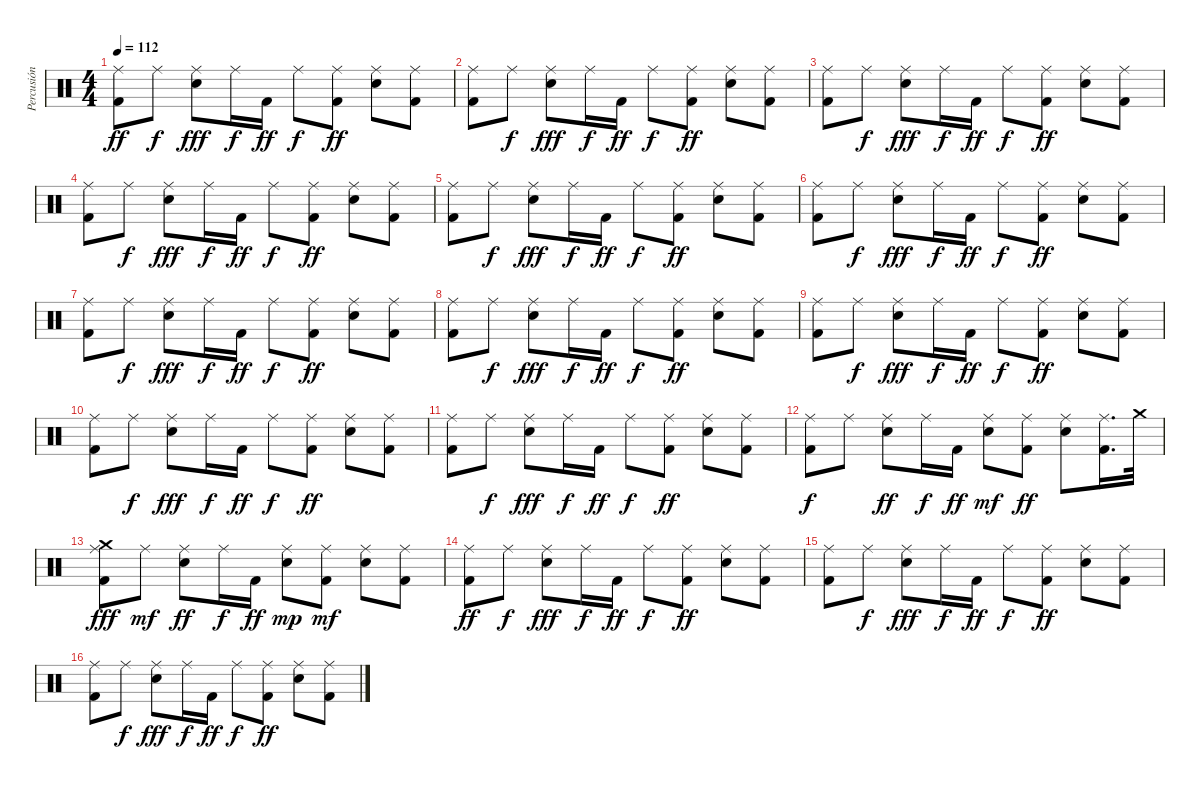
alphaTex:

\track ("Percusión" "Percusión") {instrument percussion}
\staff {score}
\articulation defaults
\ts (4 4)
\tempo 112
\clef neutral
\ks c
("Kick (hit) 2" "Ride (middle)").8{dy ff} "Ride (middle)".8{dy f} ("Snare (hit) 2" "Ride (middle)").8{dy fff} "Ride (middle)".16{dy f} "Kick (hit) 2".16{dy ff} "Ride (middle)".8{dy f} ("Kick (hit) 2" "Ride (middle)").8{dy ff} ("Snare (hit) 2" "Ride (middle)").8 ("Kick (hit) 2" "Ride (middle)").8 |
("Kick (hit) 2" "Ride (middle)").8 "Ride (middle)".8{dy f} ("Snare (hit) 2" "Ride (middle)").8{dy fff} "Ride (middle)".16{dy f} "Kick (hit) 2".16{dy ff} "Ride (middle)".8{dy f} ("Kick (hit) 2" "Ride (middle)").8{dy ff} ("Snare (hit) 2" "Ride (middle)").8 ("Kick (hit) 2" "Ride (middle)").8 |
("Kick (hit) 2" "Ride (middle)").8 "Ride (middle)".8{dy f} ("Snare (hit) 2" "Ride (middle)").8{dy fff} "Ride (middle)".16{dy f} "Kick (hit) 2".16{dy ff} "Ride (middle)".8{dy f} ("Kick (hit) 2" "Ride (middle)").8{dy ff} ("Snare (hit) 2" "Ride (middle)").8 ("Kick (hit) 2" "Ride (middle)").8 |
("Kick (hit) 2" "Ride (middle)").8 "Ride (middle)".8{dy f} ("Snare (hit) 2" "Ride (middle)").8{dy fff} "Ride (middle)".16{dy f} "Kick (hit) 2".16{dy ff} "Ride (middle)".8{dy f} ("Kick (hit) 2" "Ride (middle)").8{dy ff} ("Snare (hit) 2" "Ride (middle)").8 ("Kick (hit) 2" "Ride (middle)").8 |
("Kick (hit) 2" "Ride (middle)").8 "Ride (middle)".8{dy f} ("Snare (hit) 2" "Ride (middle)").8{dy fff} "Ride (middle)".16{dy f} "Kick (hit) 2".16{dy ff} "Ride (middle)".8{dy f} ("Kick (hit) 2" "Ride (middle)").8{dy ff} ("Snare (hit) 2" "Ride (middle)").8 ("Kick (hit) 2" "Ride (middle)").8 |
("Kick (hit) 2" "Ride (middle)").8 "Ride (middle)".8{dy f} ("Snare (hit) 2" "Ride (middle)").8{dy fff} "Ride (middle)".16{dy f} "Kick (hit) 2".16{dy ff} "Ride (middle)".8{dy f} ("Kick (hit) 2" "Ride (middle)").8{dy ff} ("Snare (hit) 2" "Ride (middle)").8 ("Kick (hit) 2" "Ride (middle)").8 |
("Kick (hit) 2" "Ride (middle)").8 "Ride (middle)".8{dy f} ("Snare (hit) 2" "Ride (middle)").8{dy fff} "Ride (middle)".16{dy f} "Kick (hit) 2".16{dy ff} "Ride (middle)".8{dy f} ("Kick (hit) 2" "Ride (middle)").8{dy ff} ("Snare (hit) 2" "Ride (middle)").8 ("Kick (hit) 2" "Ride (middle)").8 |
("Kick (hit) 2" "Ride (middle)").8 "Ride (middle)".8{dy f} ("Snare (hit) 2" "Ride (middle)").8{dy fff} "Ride (middle)".16{dy f} "Kick (hit) 2".16{dy ff} "Ride (middle)".8{dy f} ("Kick (hit) 2" "Ride (middle)").8{dy ff} ("Snare (hit) 2" "Ride (middle)").8 ("Kick (hit) 2" "Ride (middle)").8 |
("Kick (hit) 2" "Ride (middle)").8 "Ride (middle)".8{dy f} ("Snare (hit) 2" "Ride (middle)").8{dy fff} "Ride (middle)".16{dy f} "Kick (hit) 2".16{dy ff} "Ride (middle)".8{dy f} ("Kick (hit) 2" "Ride (middle)").8{dy ff} ("Snare (hit) 2" "Ride (middle)").8 ("Kick (hit) 2" "Ride (middle)").8 |
("Kick (hit) 2" "Ride (middle)").8 "Ride (middle)".8{dy f} ("Snare (hit) 2" "Ride (middle)").8{dy fff} "Ride (middle)".16{dy f} "Kick (hit) 2".16{dy ff} "Ride (middle)".8{dy f} ("Kick (hit) 2" "Ride (middle)").8{dy ff} ("Snare (hit) 2" "Ride (middle)").8 ("Kick (hit) 2" "Ride (middle)").8 |
("Kick (hit) 2" "Ride (middle)").8 "Ride (middle)".8{dy f} ("Snare (hit) 2" "Ride (middle)").8{dy fff} "Ride (middle)".16{dy f} "Kick (hit) 2".16{dy ff} "Ride (middle)".8{dy f} ("Kick (hit) 2" "Ride (middle)").8{dy ff} ("Snare (hit) 2" "Ride (middle)").8 ("Kick (hit) 2" "Ride (middle)").8 |
("Ride (middle)" "Kick (hit) 2").8{dy f} "Ride (middle)".8 ("Ride (middle)" "Snare (hit) 2").8{dy ff} "Ride (middle)".16{dy f} "Kick (hit) 2".16{dy ff} ("Snare (hit)" "Ride (middle)").8{dy mf} ("Ride (middle)" "Kick (hit) 2").8{dy ff} ("Ride (middle)" "Snare (hit) 2").8 ("Ride (middle)" "Kick (hit) 2").16{d} "Crash medium (hit)".32 |
("Crash medium (hit)" "Kick (hit) 2" "Ride (middle)").8{dy fff} "Ride (middle)".8{dy mf} ("Snare (hit) 2" "Ride (middle)").8{dy ff} "Ride (middle)".16{dy f} "Kick (hit) 2".16{dy ff} ("Snare (hit)" "Ride (middle)").8{dy mp} ("Kick (hit) 2" "Ride (middle)").8{dy mf} ("Snare (hit) 2" "Ride (middle)").8 ("Kick (hit) 2" "Ride (middle)").8 |
("Kick (hit) 2" "Ride (middle)").8{dy ff} "Ride (middle)".8{dy f} ("Snare (hit) 2" "Ride (middle)").8{dy fff} "Ride (middle)".16{dy f} "Kick (hit) 2".16{dy ff} "Ride (middle)".8{dy f} ("Kick (hit) 2" "Ride (middle)").8{dy ff} ("Snare (hit) 2" "Ride (middle)").8 ("Kick (hit) 2" "Ride (middle)").8 |
("Kick (hit) 2" "Ride (middle)").8 "Ride (middle)".8{dy f} ("Snare (hit) 2" "Ride (middle)").8{dy fff} "Ride (middle)".16{dy f} "Kick (hit) 2".16{dy ff} "Ride (middle)".8{dy f} ("Kick (hit) 2" "Ride (middle)").8{dy ff} ("Snare (hit) 2" "Ride (middle)").8 ("Kick (hit) 2" "Ride (middle)").8 |
("Kick (hit) 2" "Ride (middle)").8 "Ride (middle)".8{dy f} ("Snare (hit) 2" "Ride (middle)").8{dy fff} "Ride (middle)".16{dy f} "Kick (hit) 2".16{dy ff} "Ride (middle)".8{dy f} ("Kick (hit) 2" "Ride (middle)").8{dy ff} ("Snare (hit) 2" "Ride (middle)").8 ("Kick (hit) 2" "Ride (middle)").8
